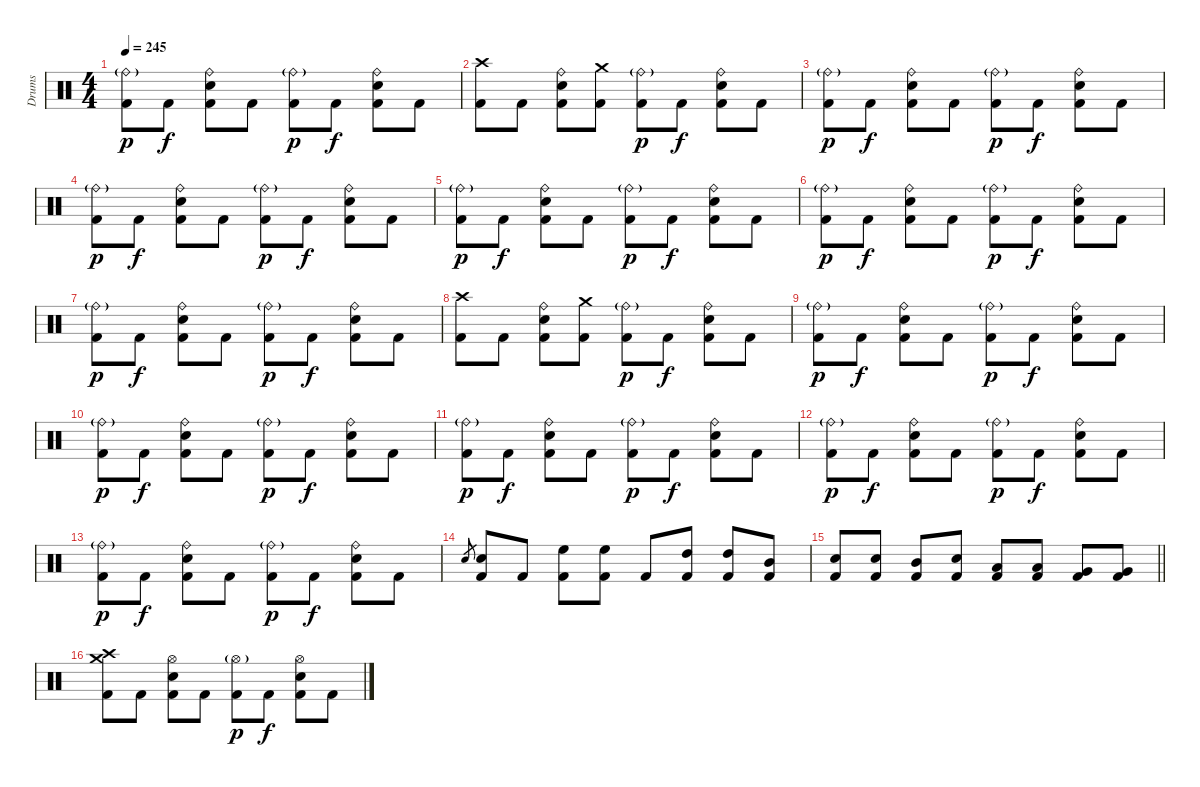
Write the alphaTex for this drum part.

\track ("Drums" "Drums") {instrument percussion}
\staff {score}
\articulation defaults
\ts (4 4)
\tempo 245
\clef neutral
\ks c
("Ride (bell)"{g} "Kick (hit) 2").8{dy p} "Kick (hit) 2".8{dy f} ("Ride (bell)" "Electric Snare (hit)" "Kick (hit) 2").8 "Kick (hit) 2".8 ("Ride (bell)"{g} "Kick (hit) 2").8{dy p} "Kick (hit) 2".8{dy f} ("Ride (bell)" "Electric Snare (hit)" "Kick (hit) 2").8 "Kick (hit) 2".8 |
("Crash high (hit)" "Kick (hit) 2").8 "Kick (hit) 2".8 ("Ride (bell)" "Electric Snare (hit)" "Kick (hit) 2").8 ("Crash medium (hit)" "Kick (hit) 2").8 ("Ride (bell)"{g} "Kick (hit) 2").8{dy p} "Kick (hit) 2".8{dy f} ("Ride (bell)" "Electric Snare (hit)" "Kick (hit) 2").8 "Kick (hit) 2".8 |
("Ride (bell)"{g} "Kick (hit) 2").8{dy p} "Kick (hit) 2".8{dy f} ("Ride (bell)" "Electric Snare (hit)" "Kick (hit) 2").8 "Kick (hit) 2".8 ("Ride (bell)"{g} "Kick (hit) 2").8{dy p} "Kick (hit) 2".8{dy f} ("Ride (bell)" "Electric Snare (hit)" "Kick (hit) 2").8 "Kick (hit) 2".8 |
("Ride (bell)"{g} "Kick (hit) 2").8{dy p} "Kick (hit) 2".8{dy f} ("Ride (bell)" "Electric Snare (hit)" "Kick (hit) 2").8 "Kick (hit) 2".8 ("Ride (bell)"{g} "Kick (hit) 2").8{dy p} "Kick (hit) 2".8{dy f} ("Ride (bell)" "Electric Snare (hit)" "Kick (hit) 2").8 "Kick (hit) 2".8 |
("Ride (bell)"{g} "Kick (hit) 2").8{dy p} "Kick (hit) 2".8{dy f} ("Ride (bell)" "Electric Snare (hit)" "Kick (hit) 2").8 "Kick (hit) 2".8 ("Ride (bell)"{g} "Kick (hit) 2").8{dy p} "Kick (hit) 2".8{dy f} ("Ride (bell)" "Electric Snare (hit)" "Kick (hit) 2").8 "Kick (hit) 2".8 |
("Ride (bell)"{g} "Kick (hit) 2").8{dy p} "Kick (hit) 2".8{dy f} ("Ride (bell)" "Electric Snare (hit)" "Kick (hit) 2").8 "Kick (hit) 2".8 ("Ride (bell)"{g} "Kick (hit) 2").8{dy p} "Kick (hit) 2".8{dy f} ("Ride (bell)" "Electric Snare (hit)" "Kick (hit) 2").8 "Kick (hit) 2".8 |
("Ride (bell)"{g} "Kick (hit) 2").8{dy p} "Kick (hit) 2".8{dy f} ("Ride (bell)" "Electric Snare (hit)" "Kick (hit) 2").8 "Kick (hit) 2".8 ("Ride (bell)"{g} "Kick (hit) 2").8{dy p} "Kick (hit) 2".8{dy f} ("Ride (bell)" "Electric Snare (hit)" "Kick (hit) 2").8 "Kick (hit) 2".8 |
("Crash high (hit)" "Kick (hit) 2").8 "Kick (hit) 2".8 ("Ride (bell)" "Electric Snare (hit)" "Kick (hit) 2").8 ("Crash medium (hit)" "Kick (hit) 2").8 ("Ride (bell)"{g} "Kick (hit) 2").8{dy p} "Kick (hit) 2".8{dy f} ("Ride (bell)" "Electric Snare (hit)" "Kick (hit) 2").8 "Kick (hit) 2".8 |
("Ride (bell)"{g} "Kick (hit) 2").8{dy p} "Kick (hit) 2".8{dy f} ("Ride (bell)" "Electric Snare (hit)" "Kick (hit) 2").8 "Kick (hit) 2".8 ("Ride (bell)"{g} "Kick (hit) 2").8{dy p} "Kick (hit) 2".8{dy f} ("Ride (bell)" "Electric Snare (hit)" "Kick (hit) 2").8 "Kick (hit) 2".8 |
("Ride (bell)"{g} "Kick (hit) 2").8{dy p} "Kick (hit) 2".8{dy f} ("Ride (bell)" "Electric Snare (hit)" "Kick (hit) 2").8 "Kick (hit) 2".8 ("Ride (bell)"{g} "Kick (hit) 2").8{dy p} "Kick (hit) 2".8{dy f} ("Ride (bell)" "Electric Snare (hit)" "Kick (hit) 2").8 "Kick (hit) 2".8 |
("Ride (bell)"{g} "Kick (hit) 2").8{dy p} "Kick (hit) 2".8{dy f} ("Ride (bell)" "Electric Snare (hit)" "Kick (hit) 2").8 "Kick (hit) 2".8 ("Ride (bell)"{g} "Kick (hit) 2").8{dy p} "Kick (hit) 2".8{dy f} ("Ride (bell)" "Electric Snare (hit)" "Kick (hit) 2").8 "Kick (hit) 2".8 |
("Ride (bell)"{g} "Kick (hit) 2").8{dy p} "Kick (hit) 2".8{dy f} ("Ride (bell)" "Electric Snare (hit)" "Kick (hit) 2").8 "Kick (hit) 2".8 ("Ride (bell)"{g} "Kick (hit) 2").8{dy p} "Kick (hit) 2".8{dy f} ("Ride (bell)" "Electric Snare (hit)" "Kick (hit) 2").8 "Kick (hit) 2".8 |
("Ride (bell)"{g} "Kick (hit) 2").8{dy p} "Kick (hit) 2".8{dy f} ("Ride (bell)" "Electric Snare (hit)" "Kick (hit) 2").8 "Kick (hit) 2".8 ("Ride (bell)"{g} "Kick (hit) 2").8{dy p} "Kick (hit) 2".8{dy f} ("Ride (bell)" "Electric Snare (hit)" "Kick (hit) 2").8 "Kick (hit) 2".8 |
"Electric Snare (hit)".8{gr} ("Electric Snare (hit)" "Kick (hit) 2").8 "Kick (hit) 2".8 ("High Floor Tom (hit)" "Kick (hit) 2").8 ("High Floor Tom (hit)" "Kick (hit) 2").8 "Kick (hit) 2".8 ("High Tom (hit)" "Kick (hit) 2").8 ("High Tom (hit)" "Kick (hit) 2").8 ("Mid Tom (hit)" "Kick (hit) 2").8 |
\barLineRight lightlight
("Electric Snare (hit)" "Kick (hit) 2").8 ("Electric Snare (hit)" "Kick (hit) 2").8 ("Mid Tom (hit)" "Kick (hit) 2").8 ("Electric Snare (hit)" "Kick (hit) 2").8 ("Low Tom (hit)" "Kick (hit) 2").8 ("Low Tom (hit)" "Kick (hit) 2").8 ("Very Low Tom (hit)" "Kick (hit) 2").8 ("Very Low Tom (hit)" "Kick (hit) 2").8 |
("Crash high (hit)" "Crash medium (hit)" "Kick (hit) 2").8 "Kick (hit) 2".8 ("Hi-Hat (open)" "Electric Snare (hit)" "Kick (hit) 2").8 "Kick (hit) 2".8 ("Hi-Hat (open)"{g} "Kick (hit) 2").8{dy p} "Kick (hit) 2".8{dy f} ("Hi-Hat (open)" "Electric Snare (hit)" "Kick (hit) 2").8 "Kick (hit) 2".8
